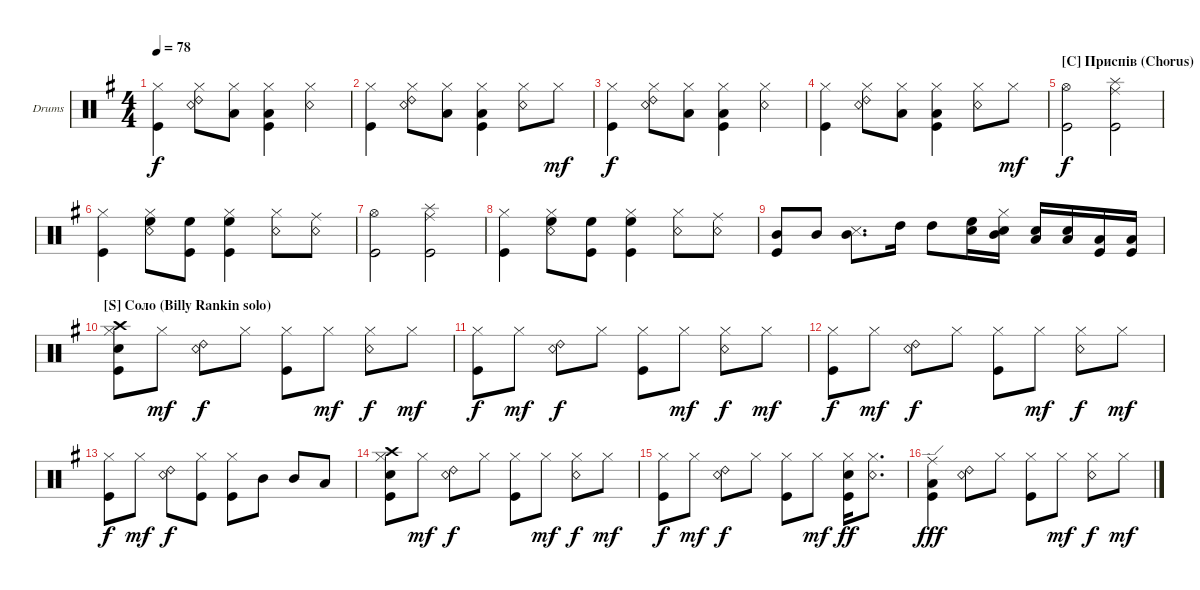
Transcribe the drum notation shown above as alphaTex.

\defaultSystemsLayout 4
\bracketExtendMode groupsimilarinstruments
\firstSystemTrackNameOrientation horizontal
\otherSystemsTrackNameOrientation horizontal
\track ("Drumkit (Darrell Sweet)" "Drums") {instrument percussion}
\staff {score}
\articulation defaults
\ts (4 4)
\tempo 78
\clef neutral
\ks eminor
("Hi-Hat (closed)" "Kick (hit)").4{dy f} ("Snare (rim shot)" "Hi-Hat (closed)" "Ride (bell) 2").8 ("Low Tom (hit)" "Hi-Hat (closed)").8 ("Low Tom (hit)" "Hi-Hat (closed)" "Kick (hit)").4 ("Snare (rim shot)" "Hi-Hat (closed)").4 |
("Hi-Hat (closed)" "Kick (hit)").4 ("Snare (rim shot)" "Hi-Hat (closed)" "Ride (bell) 2").8 ("Low Tom (hit)" "Hi-Hat (closed)").8 ("Low Tom (hit)" "Hi-Hat (closed)" "Kick (hit)").4 ("Snare (rim shot)" "Hi-Hat (closed)").8 "Hi-Hat (closed)".8{dy mf} |
("Hi-Hat (closed)" "Kick (hit)").4{dy f} ("Snare (rim shot)" "Hi-Hat (closed)" "Ride (bell) 2").8 ("Low Tom (hit)" "Hi-Hat (closed)").8 ("Low Tom (hit)" "Hi-Hat (closed)" "Kick (hit)").4 ("Snare (rim shot)" "Hi-Hat (closed)").4 |
("Hi-Hat (closed)" "Kick (hit)").4 ("Snare (rim shot)" "Hi-Hat (closed)" "Ride (bell) 2").8 ("Low Tom (hit)" "Hi-Hat (closed)").8 ("Low Tom (hit)" "Hi-Hat (closed)" "Kick (hit)").4 ("Snare (rim shot)" "Hi-Hat (closed)").8 "Hi-Hat (closed)".8{dy mf} |
\section ("C" "Приспів (Chorus)")
("Kick (hit)" "Hi-Hat (open)").2{dy f} ("Kick (hit)" "Ride (middle)" "Splash (hit)").2 |
("Hi-Hat (closed)" "Kick (hit)").4 ("Snare (rim shot)" "Hi-Hat (closed)" "High Floor Tom (hit)").8 ("Kick (hit)" "High Floor Tom (hit)").8 ("Hi-Hat (closed)" "Kick (hit)" "High Floor Tom (hit)").4 ("Snare (rim shot)" "Hi-Hat (closed)").8 ("Snare (rim shot)" "Ride (middle)").8 |
("Kick (hit)" "Hi-Hat (open)").2 ("Kick (hit)" "Ride (middle)" "Splash (hit)").2 |
("Hi-Hat (closed)" "Kick (hit)").4 ("Snare (rim shot)" "Hi-Hat (closed)" "High Floor Tom (hit)").8 ("Kick (hit)" "High Floor Tom (hit)").8 ("Hi-Hat (closed)" "Kick (hit)" "High Floor Tom (hit)").4 ("Snare (rim shot)" "Hi-Hat (closed)").8 ("Snare (rim shot)" "Ride (middle)").8 |
("Kick (hit)" "Mid Tom (hit)").8 "Mid Tom (hit)".8 ("Mid Tom (hit)" "Snare (side stick) 3").8{d} "High Tom (hit)".16 "High Tom (hit)".8 ("High Floor Tom (hit)" "Snare (hit) 2").16 ("Mid Tom (hit)" "Hi-Hat (closed)" "Snare (hit) 2").16 ("Snare (hit) 2" "Low Tom (hit)").16 ("Low Tom (hit)" "Snare (hit) 2").16 ("Kick (hit)" "Low Tom (hit)").16 ("Kick (hit)" "Low Tom (hit)").16 |
\section ("S" "Соло (Billy Rankin solo)")
("Kick (hit)" "Crash high (hit)" "Snare (hit) 2" "Hi-Hat (closed)").8 "Hi-Hat (closed)".8{dy mf} ("Snare (rim shot)" "Ride (bell) 2").8{dy f} "Hi-Hat (closed)".8 ("Hi-Hat (closed)" "Kick (hit)").8 "Hi-Hat (closed)".8{dy mf} ("Snare (rim shot)" "Hi-Hat (closed)").8{dy f} "Hi-Hat (closed)".8{dy mf} |
("Hi-Hat (closed)" "Kick (hit)").8{dy f} "Hi-Hat (closed)".8{dy mf} ("Snare (rim shot)" "Ride (bell) 2").8{dy f} "Hi-Hat (closed)".8 ("Hi-Hat (closed)" "Kick (hit)").8 "Hi-Hat (closed)".8{dy mf} ("Snare (rim shot)" "Hi-Hat (closed)").8{dy f} "Hi-Hat (closed)".8{dy mf} |
("Hi-Hat (closed)" "Kick (hit)").8{dy f} "Hi-Hat (closed)".8{dy mf} ("Snare (rim shot)" "Ride (bell) 2").8{dy f} "Hi-Hat (closed)".8 ("Hi-Hat (closed)" "Kick (hit)").8 "Hi-Hat (closed)".8{dy mf} ("Snare (rim shot)" "Hi-Hat (closed)").8{dy f} "Hi-Hat (closed)".8{dy mf} |
("Hi-Hat (closed)" "Kick (hit)").8{dy f} "Hi-Hat (closed)".8{dy mf} ("Snare (rim shot)" "Ride (bell) 2").8{dy f} ("Hi-Hat (closed)" "Kick (hit)").8 ("Hi-Hat (closed)" "Kick (hit)").8 "Mid Tom (hit)".8 "Mid Tom (hit)".8 "Low Tom (hit)".8 |
("Kick (hit)" "Crash high (hit)" "Snare (hit) 2" "Hi-Hat (closed)").8 "Hi-Hat (closed)".8{dy mf} ("Snare (rim shot)" "Ride (bell) 2").8{dy f} "Hi-Hat (closed)".8 ("Hi-Hat (closed)" "Kick (hit)").8 "Hi-Hat (closed)".8{dy mf} ("Snare (rim shot)" "Hi-Hat (closed)").8{dy f} "Hi-Hat (closed)".8{dy mf} |
("Hi-Hat (closed)" "Kick (hit)").8{dy f} "Hi-Hat (closed)".8{dy mf} ("Snare (rim shot)" "Ride (bell) 2").8{dy f} "Hi-Hat (closed)".8 ("Hi-Hat (closed)" "Kick (hit)").8 "Hi-Hat (closed)".8{dy mf} ("Hi-Hat (closed)" "Kick (hit)" "Snare (hit) 2").16{dy ff} ("Snare (rim shot)" "Hi-Hat (closed)").8{d} |
("Kick (hit)" "Ride (edge)" "Low Tom (hit)").4{dy fff} ("Snare (rim shot)" "Ride (bell) 2").8 "Hi-Hat (closed)".8 ("Hi-Hat (closed)" "Kick (hit)").8 "Hi-Hat (closed)".8{dy mf} ("Snare (rim shot)" "Hi-Hat (closed)").8{dy f} "Hi-Hat (closed)".8{dy mf}
